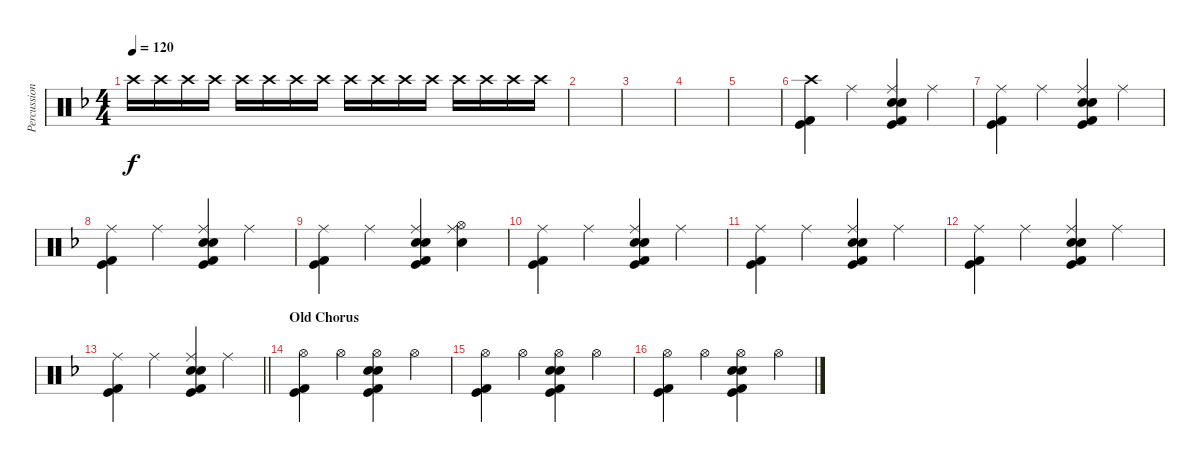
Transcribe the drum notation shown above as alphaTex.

\track ("Percussion" "Percussion") {instrument percussion}
\staff {score}
\articulation defaults
\ts (4 4)
\tempo 120
\clef neutral
\ks dminor "Crash high (hit)".16{dy f volume 0} "Crash high (hit)".16 "Crash high (hit)".16{volume 5} "Crash high (hit)".16 "Crash high (hit)".16{volume 9} "Crash high (hit)".16 "Crash high (hit)".16{volume 10} "Crash high (hit)".16 "Crash high (hit)".16 "Crash high (hit)".16 "Crash high (hit)".16 "Crash high (hit)".16 "Crash high (hit)".16 "Crash high (hit)".16 "Crash high (hit)".16 "Crash high (hit)".16
|
|
|
|
|
("Crash high (hit)" "Kick (hit) 2" "Kick (hit)").4 "Ride (middle)".4 ("Ride (middle)" "Electric Snare (hit)" "Electric Snare (hit)" "Kick (hit) 2" "Kick (hit)").4 "Ride (middle)".4 |
("Ride (middle)" "Kick (hit) 2" "Kick (hit)").4 "Ride (middle)".4 ("Ride (middle)" "Electric Snare (hit)" "Electric Snare (hit)" "Kick (hit) 2" "Kick (hit)").4 "Ride (middle)".4 |
("Ride (middle)" "Kick (hit) 2" "Kick (hit)").4 "Ride (middle)".4 ("Ride (middle)" "Electric Snare (hit)" "Electric Snare (hit)" "Kick (hit) 2" "Kick (hit)").4 "Ride (middle)".4 |
("Ride (middle)" "Kick (hit) 2" "Kick (hit)").4 "Ride (middle)".4 ("Ride (middle)" "Electric Snare (hit)" "Electric Snare (hit)" "Kick (hit) 2" "Kick (hit)").4 ("Ride (middle)" "Hi-Hat (open)" "Electric Snare (hit)").4 |
("Ride (middle)" "Kick (hit) 2" "Kick (hit)").4 "Ride (middle)".4 ("Ride (middle)" "Electric Snare (hit)" "Electric Snare (hit)" "Kick (hit) 2" "Kick (hit)").4 "Ride (middle)".4 |
("Ride (middle)" "Kick (hit) 2" "Kick (hit)").4 "Ride (middle)".4 ("Ride (middle)" "Electric Snare (hit)" "Electric Snare (hit)" "Kick (hit) 2" "Kick (hit)").4 "Ride (middle)".4 |
("Ride (middle)" "Kick (hit) 2" "Kick (hit)").4 "Ride (middle)".4 ("Ride (middle)" "Electric Snare (hit)" "Electric Snare (hit)" "Kick (hit) 2" "Kick (hit)").4 "Ride (middle)".4 |
\barLineRight lightlight
("Ride (middle)" "Kick (hit) 2" "Kick (hit)").4 "Ride (middle)".4 ("Ride (middle)" "Electric Snare (hit)" "Electric Snare (hit)" "Kick (hit) 2" "Kick (hit)").4 "Ride (middle)".4 |
\section ("" "Old Chorus")
("Hi-Hat (open)" "Kick (hit) 2" "Kick (hit)").4 "Hi-Hat (open)".4 ("Hi-Hat (open)" "Electric Snare (hit)" "Electric Snare (hit)" "Kick (hit) 2" "Kick (hit)").4 "Hi-Hat (open)".4 |
("Hi-Hat (open)" "Kick (hit) 2" "Kick (hit)").4 "Hi-Hat (open)".4 ("Hi-Hat (open)" "Electric Snare (hit)" "Electric Snare (hit)" "Kick (hit) 2" "Kick (hit)").4 "Hi-Hat (open)".4 |
("Hi-Hat (open)" "Kick (hit) 2" "Kick (hit)").4 "Hi-Hat (open)".4 ("Hi-Hat (open)" "Electric Snare (hit)" "Electric Snare (hit)" "Kick (hit) 2" "Kick (hit)").4 "Hi-Hat (open)".4
